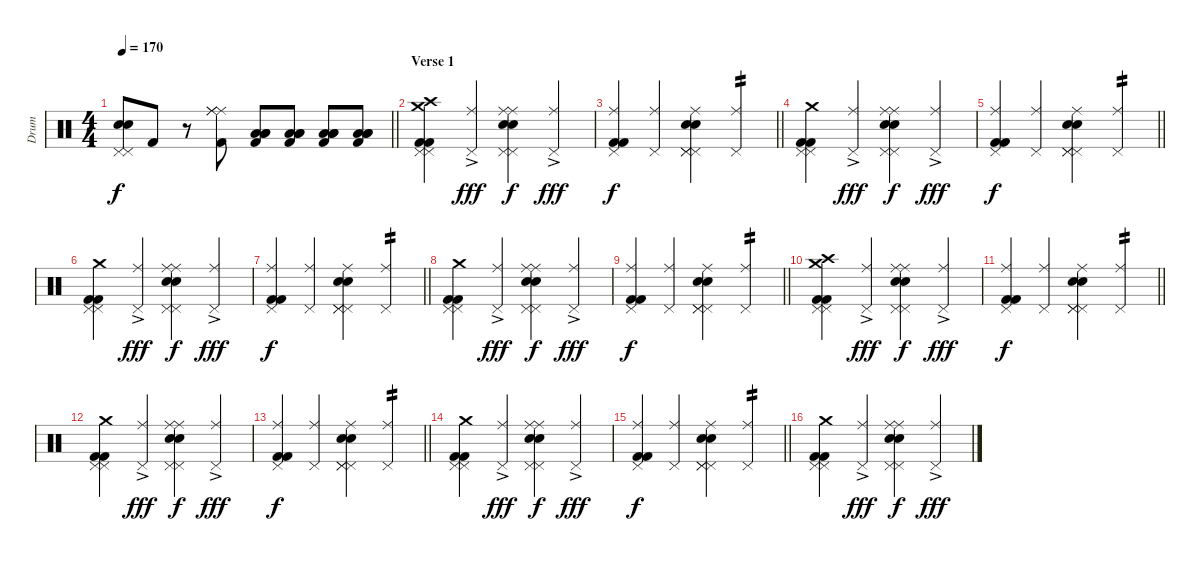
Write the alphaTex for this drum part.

\track ("Drum" "Drum") {instrument percussion}
\staff {score}
\articulation defaults
\ts (4 4)
\tempo 170
\clef neutral
\barLineRight lightlight
\ks c
("Electric Snare (hit)" "Electric Snare (hit)" "Pedal Hi-Hat (hit)" "Pedal Hi-Hat (hit)").8{dy f} "Kick (hit) 2".8 r.8 ("Kick (hit) 2" "Ride (middle)" "Ride (middle)" "Ride (middle)").8 ("Kick (hit) 2" "Low Tom (hit)" "Low Floor Tom (hit)" "Low Floor Tom (hit)").8 ("Kick (hit) 2" "Low Tom (hit)" "Low Floor Tom (hit)" "Low Floor Tom (hit)").8 ("Kick (hit) 2" "Low Tom (hit)" "Low Floor Tom (hit)" "Low Floor Tom (hit)").8 ("Kick (hit) 2" "Low Tom (hit)" "Low Floor Tom (hit)" "Low Floor Tom (hit)").8 |
\section ("" "Verse 1")
("Crash high (hit)" "Crash medium (hit)" "Kick (hit) 2" "Kick (hit) 2" "Pedal Hi-Hat (hit)" "Pedal Hi-Hat (hit)").4 ("Ride (middle)"{ac} "Pedal Hi-Hat (hit)"{ac}).4{dy fff} ("Electric Snare (hit)" "Electric Snare (hit)" "Pedal Hi-Hat (hit)" "Pedal Hi-Hat (hit)" "Ride (middle)" "Ride (middle)").4{dy f} ("Ride (middle)"{ac} "Pedal Hi-Hat (hit)"{ac}).4{dy fff} |
\barLineRight lightlight
("Kick (hit) 2" "Kick (hit) 2" "Ride (middle)" "Pedal Hi-Hat (hit)").4{dy f} ("Ride (middle)" "Pedal Hi-Hat (hit)").4 ("Electric Snare (hit)" "Electric Snare (hit)" "Pedal Hi-Hat (hit)" "Pedal Hi-Hat (hit)" "Ride (middle)" "Pedal Hi-Hat (hit)").4 ("Ride (middle)" "Pedal Hi-Hat (hit)").4{tp 2} |
("Crash medium (hit)" "Kick (hit) 2" "Kick (hit) 2" "Pedal Hi-Hat (hit)" "Pedal Hi-Hat (hit)").4 ("Ride (middle)"{ac} "Pedal Hi-Hat (hit)"{ac}).4{dy fff} ("Electric Snare (hit)" "Electric Snare (hit)" "Pedal Hi-Hat (hit)" "Pedal Hi-Hat (hit)" "Ride (middle)" "Ride (middle)").4{dy f} ("Ride (middle)"{ac} "Pedal Hi-Hat (hit)"{ac}).4{dy fff} |
\barLineRight lightlight
("Kick (hit) 2" "Kick (hit) 2" "Ride (middle)" "Pedal Hi-Hat (hit)").4{dy f} ("Ride (middle)" "Pedal Hi-Hat (hit)").4 ("Electric Snare (hit)" "Electric Snare (hit)" "Pedal Hi-Hat (hit)" "Pedal Hi-Hat (hit)" "Ride (middle)" "Pedal Hi-Hat (hit)").4 ("Ride (middle)" "Pedal Hi-Hat (hit)").4{tp 2} |
("Crash medium (hit)" "Kick (hit) 2" "Kick (hit) 2" "Pedal Hi-Hat (hit)" "Pedal Hi-Hat (hit)").4 ("Ride (middle)"{ac} "Pedal Hi-Hat (hit)"{ac}).4{dy fff} ("Electric Snare (hit)" "Electric Snare (hit)" "Pedal Hi-Hat (hit)" "Pedal Hi-Hat (hit)" "Ride (middle)" "Ride (middle)").4{dy f} ("Ride (middle)"{ac} "Pedal Hi-Hat (hit)"{ac}).4{dy fff} |
\barLineRight lightlight
("Kick (hit) 2" "Kick (hit) 2" "Ride (middle)" "Pedal Hi-Hat (hit)").4{dy f} ("Ride (middle)" "Pedal Hi-Hat (hit)").4 ("Electric Snare (hit)" "Electric Snare (hit)" "Pedal Hi-Hat (hit)" "Pedal Hi-Hat (hit)" "Ride (middle)" "Pedal Hi-Hat (hit)").4 ("Ride (middle)" "Pedal Hi-Hat (hit)").4{tp 2} |
("Crash medium (hit)" "Kick (hit) 2" "Kick (hit) 2" "Pedal Hi-Hat (hit)" "Pedal Hi-Hat (hit)").4 ("Ride (middle)"{ac} "Pedal Hi-Hat (hit)"{ac}).4{dy fff} ("Electric Snare (hit)" "Electric Snare (hit)" "Pedal Hi-Hat (hit)" "Pedal Hi-Hat (hit)" "Ride (middle)" "Ride (middle)").4{dy f} ("Ride (middle)"{ac} "Pedal Hi-Hat (hit)"{ac}).4{dy fff} |
\barLineRight lightlight
("Kick (hit) 2" "Kick (hit) 2" "Ride (middle)" "Pedal Hi-Hat (hit)").4{dy f} ("Ride (middle)" "Pedal Hi-Hat (hit)").4 ("Electric Snare (hit)" "Electric Snare (hit)" "Pedal Hi-Hat (hit)" "Pedal Hi-Hat (hit)" "Ride (middle)" "Pedal Hi-Hat (hit)").4 ("Ride (middle)" "Pedal Hi-Hat (hit)").4{tp 2} |
("Crash high (hit)" "Crash medium (hit)" "Kick (hit) 2" "Kick (hit) 2" "Pedal Hi-Hat (hit)" "Pedal Hi-Hat (hit)").4 ("Ride (middle)"{ac} "Pedal Hi-Hat (hit)"{ac}).4{dy fff} ("Electric Snare (hit)" "Electric Snare (hit)" "Pedal Hi-Hat (hit)" "Pedal Hi-Hat (hit)" "Ride (middle)" "Ride (middle)").4{dy f} ("Ride (middle)"{ac} "Pedal Hi-Hat (hit)"{ac}).4{dy fff} |
\barLineRight lightlight
("Kick (hit) 2" "Kick (hit) 2" "Ride (middle)" "Pedal Hi-Hat (hit)").4{dy f} ("Ride (middle)" "Pedal Hi-Hat (hit)").4 ("Electric Snare (hit)" "Electric Snare (hit)" "Pedal Hi-Hat (hit)" "Pedal Hi-Hat (hit)" "Ride (middle)" "Pedal Hi-Hat (hit)").4 ("Ride (middle)" "Pedal Hi-Hat (hit)").4{tp 2} |
("Crash medium (hit)" "Kick (hit) 2" "Kick (hit) 2" "Pedal Hi-Hat (hit)" "Pedal Hi-Hat (hit)").4 ("Ride (middle)"{ac} "Pedal Hi-Hat (hit)"{ac}).4{dy fff} ("Electric Snare (hit)" "Electric Snare (hit)" "Pedal Hi-Hat (hit)" "Pedal Hi-Hat (hit)" "Ride (middle)" "Ride (middle)").4{dy f} ("Ride (middle)"{ac} "Pedal Hi-Hat (hit)"{ac}).4{dy fff} |
\barLineRight lightlight
("Kick (hit) 2" "Kick (hit) 2" "Ride (middle)" "Pedal Hi-Hat (hit)").4{dy f} ("Ride (middle)" "Pedal Hi-Hat (hit)").4 ("Electric Snare (hit)" "Electric Snare (hit)" "Pedal Hi-Hat (hit)" "Pedal Hi-Hat (hit)" "Ride (middle)" "Pedal Hi-Hat (hit)").4 ("Ride (middle)" "Pedal Hi-Hat (hit)").4{tp 2} |
("Crash medium (hit)" "Kick (hit) 2" "Kick (hit) 2" "Pedal Hi-Hat (hit)" "Pedal Hi-Hat (hit)").4 ("Ride (middle)"{ac} "Pedal Hi-Hat (hit)"{ac}).4{dy fff} ("Electric Snare (hit)" "Electric Snare (hit)" "Pedal Hi-Hat (hit)" "Pedal Hi-Hat (hit)" "Ride (middle)" "Ride (middle)").4{dy f} ("Ride (middle)"{ac} "Pedal Hi-Hat (hit)"{ac}).4{dy fff} |
\barLineRight lightlight
("Kick (hit) 2" "Kick (hit) 2" "Ride (middle)" "Pedal Hi-Hat (hit)").4{dy f} ("Ride (middle)" "Pedal Hi-Hat (hit)").4 ("Electric Snare (hit)" "Electric Snare (hit)" "Pedal Hi-Hat (hit)" "Pedal Hi-Hat (hit)" "Ride (middle)" "Pedal Hi-Hat (hit)").4 ("Ride (middle)" "Pedal Hi-Hat (hit)").4{tp 2} |
("Crash medium (hit)" "Kick (hit) 2" "Kick (hit) 2" "Pedal Hi-Hat (hit)" "Pedal Hi-Hat (hit)").4 ("Ride (middle)"{ac} "Pedal Hi-Hat (hit)"{ac}).4{dy fff} ("Electric Snare (hit)" "Electric Snare (hit)" "Pedal Hi-Hat (hit)" "Pedal Hi-Hat (hit)" "Ride (middle)" "Ride (middle)").4{dy f} ("Ride (middle)"{ac} "Pedal Hi-Hat (hit)"{ac}).4{dy fff}
